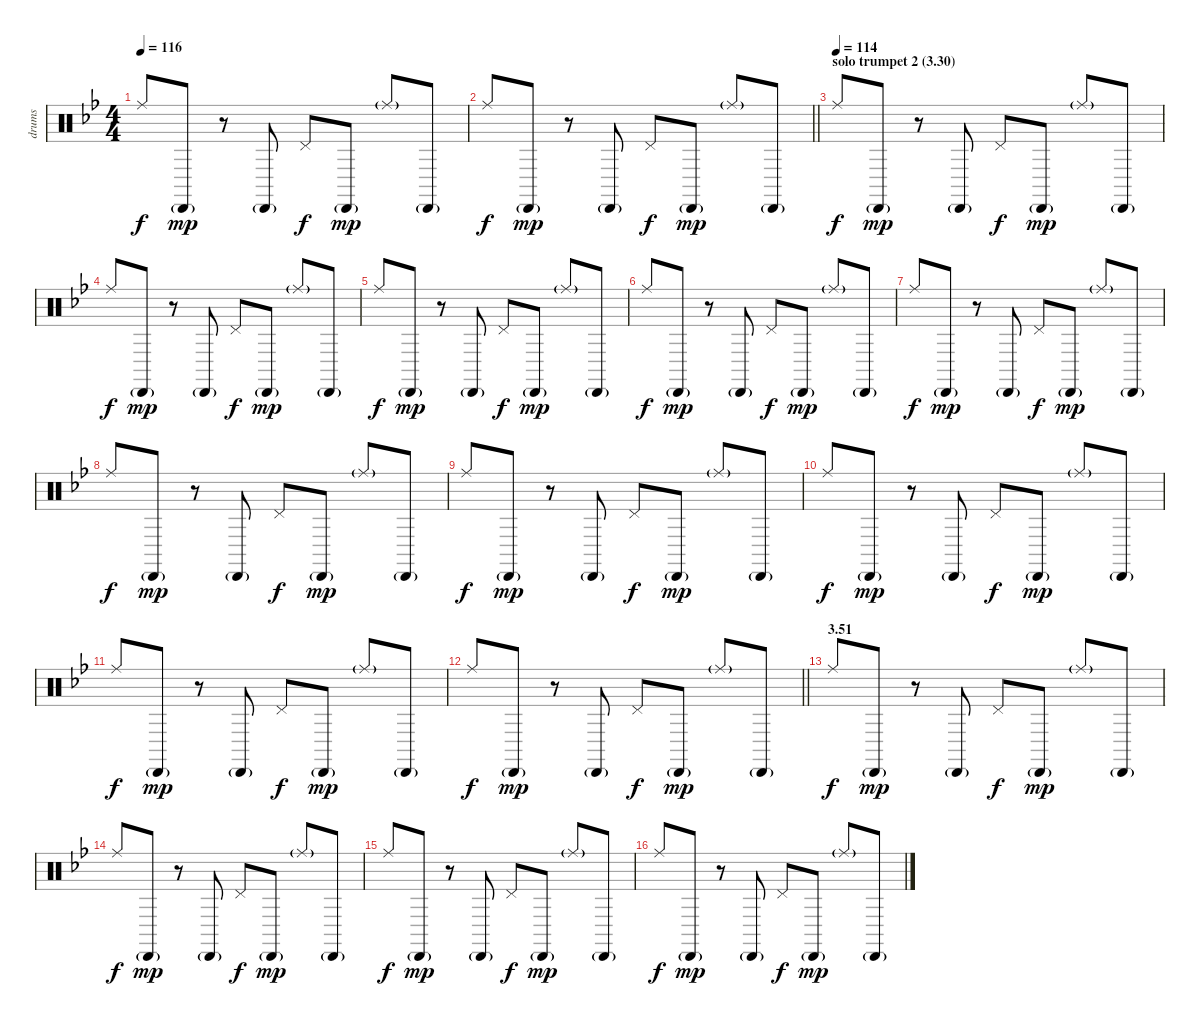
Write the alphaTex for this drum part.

\track ("drums" "drums") {instrument percussion}
\staff {score}
\articulation defaults
\ts (4 4)
\tempo 116
\clef neutral
\ks bb "Ride (middle)".8{dy f} "Cabasa (hit)"{g}.8{dy mp}
r.8 "Cabasa (hit)"{g}.8 "Pedal Hi-Hat (hit)".8{dy f} "Cabasa (hit)"{g}.8{dy mp} "Ride (middle)"{g}.8 "Cabasa (hit)"{g}.8 |
\barLineRight lightlight "Ride (middle)".8{dy f} "Cabasa (hit)"{g}.8{dy mp}
r.8 "Cabasa (hit)"{g}.8 "Pedal Hi-Hat (hit)".8{dy f} "Cabasa (hit)"{g}.8{dy mp} "Ride (middle)"{g}.8 "Cabasa (hit)"{g}.8 |
\section ("" "solo trumpet 2 (3.30)")
\tempo (114)
"Ride (middle)".8{dy f} "Cabasa (hit)"{g}.8{dy mp} r.8 "Cabasa (hit)"{g}.8 "Pedal Hi-Hat (hit)".8{dy f} "Cabasa (hit)"{g}.8{dy mp} "Ride (middle)"{g}.8 "Cabasa (hit)"{g}.8 |
"Ride (middle)".8{dy f} "Cabasa (hit)"{g}.8{dy mp} r.8 "Cabasa (hit)"{g}.8 "Pedal Hi-Hat (hit)".8{dy f} "Cabasa (hit)"{g}.8{dy mp} "Ride (middle)"{g}.8 "Cabasa (hit)"{g}.8 |
"Ride (middle)".8{dy f} "Cabasa (hit)"{g}.8{dy mp} r.8 "Cabasa (hit)"{g}.8 "Pedal Hi-Hat (hit)".8{dy f} "Cabasa (hit)"{g}.8{dy mp} "Ride (middle)"{g}.8 "Cabasa (hit)"{g}.8 |
"Ride (middle)".8{dy f} "Cabasa (hit)"{g}.8{dy mp} r.8 "Cabasa (hit)"{g}.8 "Pedal Hi-Hat (hit)".8{dy f} "Cabasa (hit)"{g}.8{dy mp} "Ride (middle)"{g}.8 "Cabasa (hit)"{g}.8 |
"Ride (middle)".8{dy f} "Cabasa (hit)"{g}.8{dy mp} r.8 "Cabasa (hit)"{g}.8 "Pedal Hi-Hat (hit)".8{dy f} "Cabasa (hit)"{g}.8{dy mp} "Ride (middle)"{g}.8 "Cabasa (hit)"{g}.8 |
"Ride (middle)".8{dy f} "Cabasa (hit)"{g}.8{dy mp} r.8 "Cabasa (hit)"{g}.8 "Pedal Hi-Hat (hit)".8{dy f} "Cabasa (hit)"{g}.8{dy mp} "Ride (middle)"{g}.8 "Cabasa (hit)"{g}.8 |
"Ride (middle)".8{dy f} "Cabasa (hit)"{g}.8{dy mp} r.8 "Cabasa (hit)"{g}.8 "Pedal Hi-Hat (hit)".8{dy f} "Cabasa (hit)"{g}.8{dy mp} "Ride (middle)"{g}.8 "Cabasa (hit)"{g}.8 |
"Ride (middle)".8{dy f} "Cabasa (hit)"{g}.8{dy mp} r.8 "Cabasa (hit)"{g}.8 "Pedal Hi-Hat (hit)".8{dy f} "Cabasa (hit)"{g}.8{dy mp} "Ride (middle)"{g}.8 "Cabasa (hit)"{g}.8 |
"Ride (middle)".8{dy f} "Cabasa (hit)"{g}.8{dy mp} r.8 "Cabasa (hit)"{g}.8 "Pedal Hi-Hat (hit)".8{dy f} "Cabasa (hit)"{g}.8{dy mp} "Ride (middle)"{g}.8 "Cabasa (hit)"{g}.8 |
\barLineRight lightlight "Ride (middle)".8{dy f} "Cabasa (hit)"{g}.8{dy mp}
r.8 "Cabasa (hit)"{g}.8 "Pedal Hi-Hat (hit)".8{dy f} "Cabasa (hit)"{g}.8{dy mp} "Ride (middle)"{g}.8 "Cabasa (hit)"{g}.8 |
\section ("" "3.51")
"Ride (middle)".8{dy f} "Cabasa (hit)"{g}.8{dy mp} r.8 "Cabasa (hit)"{g}.8 "Pedal Hi-Hat (hit)".8{dy f} "Cabasa (hit)"{g}.8{dy mp} "Ride (middle)"{g}.8 "Cabasa (hit)"{g}.8 |
"Ride (middle)".8{dy f} "Cabasa (hit)"{g}.8{dy mp} r.8 "Cabasa (hit)"{g}.8 "Pedal Hi-Hat (hit)".8{dy f} "Cabasa (hit)"{g}.8{dy mp} "Ride (middle)"{g}.8 "Cabasa (hit)"{g}.8 |
"Ride (middle)".8{dy f} "Cabasa (hit)"{g}.8{dy mp} r.8 "Cabasa (hit)"{g}.8 "Pedal Hi-Hat (hit)".8{dy f} "Cabasa (hit)"{g}.8{dy mp} "Ride (middle)"{g}.8 "Cabasa (hit)"{g}.8 |
"Ride (middle)".8{dy f} "Cabasa (hit)"{g}.8{dy mp} r.8 "Cabasa (hit)"{g}.8 "Pedal Hi-Hat (hit)".8{dy f} "Cabasa (hit)"{g}.8{dy mp} "Ride (middle)"{g}.8 "Cabasa (hit)"{g}.8
